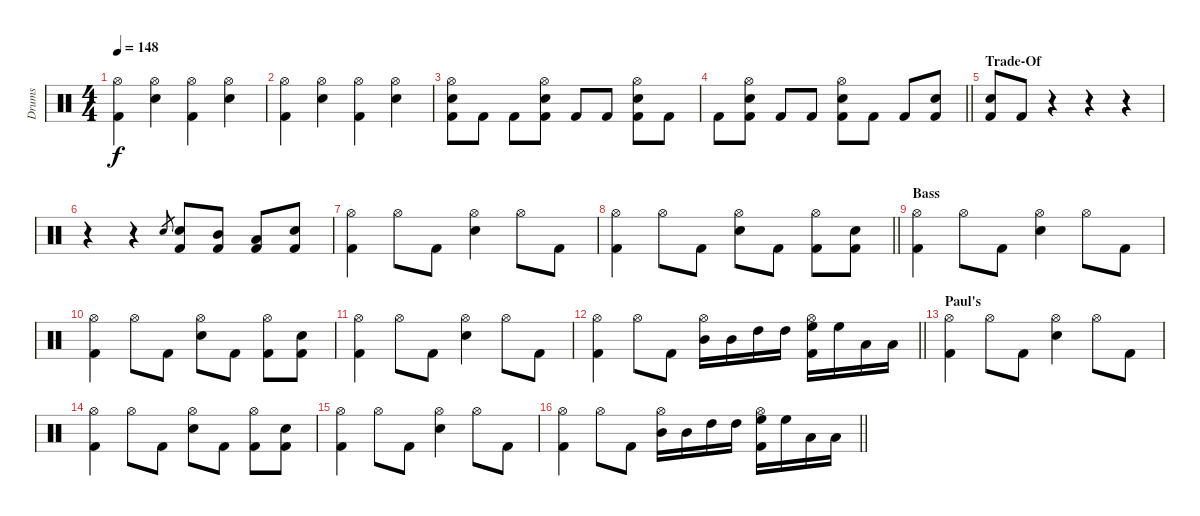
\track ("Drums" "Drums") {instrument percussion}
\staff {score}
\articulation defaults
\ts (4 4)
\tempo 148
\clef neutral
\ks c
("Hi-Hat (open)" "Kick (hit) 2").4{dy f} ("Hi-Hat (open)" "Snare (hit) 2").4 ("Hi-Hat (open)" "Kick (hit) 2").4 ("Hi-Hat (open)" "Snare (hit) 2").4 |
("Hi-Hat (open)" "Kick (hit) 2").4 ("Hi-Hat (open)" "Snare (hit) 2").4 ("Hi-Hat (open)" "Kick (hit) 2").4 ("Hi-Hat (open)" "Snare (hit) 2").4 |
("Hi-Hat (open)" "Snare (hit) 2" "Kick (hit) 2").8 "Kick (hit) 2".8 "Kick (hit) 2".8 ("Hi-Hat (open)" "Snare (hit) 2" "Kick (hit) 2").8 "Kick (hit) 2".8 "Kick (hit) 2".8 ("Hi-Hat (open)" "Snare (hit) 2" "Kick (hit) 2").8 "Kick (hit) 2".8 |
\barLineRight lightlight "Kick (hit) 2".8
("Hi-Hat (open)" "Snare (hit) 2" "Kick (hit) 2").8 "Kick (hit) 2".8 "Kick (hit) 2".8 ("Hi-Hat (open)" "Snare (hit) 2" "Kick (hit) 2").8 "Kick (hit) 2".8 "Kick (hit) 2".8 ("Snare (hit) 2" "Kick (hit) 2").8 |
\section ("" "Trade-Of ")
("Snare (hit) 2" "Kick (hit) 2").8 "Kick (hit) 2".8 r.4 r.4 r.4 |
r.4 r.4 "Snare (hit) 2".8{gr} ("Snare (hit) 2" "Kick (hit) 2").8 ("Mid Tom (hit)" "Kick (hit) 2").8 ("Low Tom (hit)" "Kick (hit) 2").8 ("Snare (hit) 2" "Kick (hit) 2").8 |
("Hi-Hat (open)" "Kick (hit) 2").4 "Hi-Hat (open)".8 "Kick (hit) 2".8 ("Hi-Hat (open)" "Snare (hit) 2").4 "Hi-Hat (open)".8 "Kick (hit) 2".8 |
\barLineRight lightlight
("Hi-Hat (open)" "Kick (hit) 2").4 "Hi-Hat (open)".8 "Kick (hit) 2".8 ("Hi-Hat (open)" "Snare (hit) 2").8 "Kick (hit) 2".8 ("Hi-Hat (open)" "Kick (hit) 2").8 ("Snare (hit) 2" "Kick (hit) 2").8 |
\section ("" "Bass")
("Hi-Hat (open)" "Kick (hit) 2").4 "Hi-Hat (open)".8 "Kick (hit) 2".8 ("Hi-Hat (open)" "Snare (hit) 2").4 "Hi-Hat (open)".8 "Kick (hit) 2".8 |
("Hi-Hat (open)" "Kick (hit) 2").4 "Hi-Hat (open)".8 "Kick (hit) 2".8 ("Hi-Hat (open)" "Snare (hit) 2").8 "Kick (hit) 2".8 ("Hi-Hat (open)" "Kick (hit) 2").8 ("Snare (hit) 2" "Kick (hit) 2").8 |
("Hi-Hat (open)" "Kick (hit) 2").4 "Hi-Hat (open)".8 "Kick (hit) 2".8 ("Hi-Hat (open)" "Snare (hit) 2").4 "Hi-Hat (open)".8 "Kick (hit) 2".8 |
\barLineRight lightlight
("Hi-Hat (open)" "Kick (hit) 2").4 "Hi-Hat (open)".8 "Kick (hit) 2".8 ("Hi-Hat (open)" "Mid Tom (hit)").16 "Mid Tom (hit)".16 "High Tom (hit)".16 "High Tom (hit)".16 ("Hi-Hat (open)" "High Floor Tom (hit)" "Kick (hit) 2").16 "High Floor Tom (hit)".16 "Low Tom (hit)".16 "Low Tom (hit)".16 |
\section ("" "Paul's ")
("Hi-Hat (open)" "Kick (hit) 2").4 "Hi-Hat (open)".8 "Kick (hit) 2".8 ("Hi-Hat (open)" "Snare (hit) 2").4 "Hi-Hat (open)".8 "Kick (hit) 2".8 |
("Hi-Hat (open)" "Kick (hit) 2").4 "Hi-Hat (open)".8 "Kick (hit) 2".8 ("Hi-Hat (open)" "Snare (hit) 2").8 "Kick (hit) 2".8 ("Hi-Hat (open)" "Kick (hit) 2").8 ("Snare (hit) 2" "Kick (hit) 2").8 |
("Hi-Hat (open)" "Kick (hit) 2").4 "Hi-Hat (open)".8 "Kick (hit) 2".8 ("Hi-Hat (open)" "Snare (hit) 2").4 "Hi-Hat (open)".8 "Kick (hit) 2".8 |
\barLineRight lightlight
("Hi-Hat (open)" "Kick (hit) 2").4 "Hi-Hat (open)".8 "Kick (hit) 2".8 ("Hi-Hat (open)" "Mid Tom (hit)").16 "Mid Tom (hit)".16 "High Tom (hit)".16 "High Tom (hit)".16 ("Hi-Hat (open)" "High Floor Tom (hit)" "Kick (hit) 2").16 "High Floor Tom (hit)".16 "Low Tom (hit)".16 "Low Tom (hit)".16
